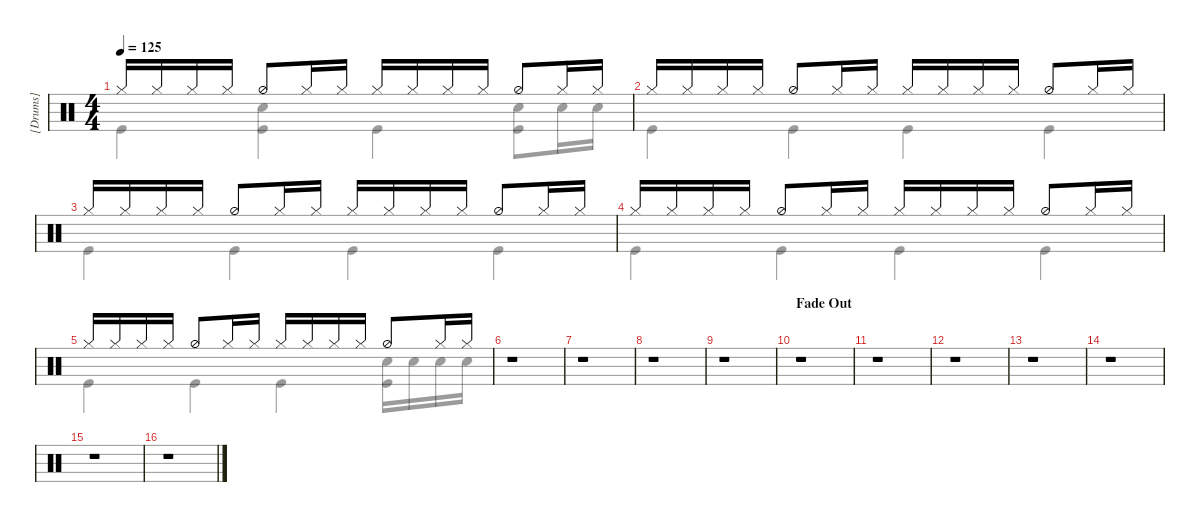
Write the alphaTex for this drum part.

\hideDynamics
\bracketExtendMode groupsimilarinstruments
\firstSystemTrackNameMode fullname
\otherSystemsTrackNameMode fullname
\otherSystemsTrackNameOrientation horizontal
\track ("[Drums]" "Drums") {instrument percussion}
\staff {score}
\articulation defaults
\voice
\ts (4 4)
\tempo 125
\clef neutral
\ks c "Hi-Hat (closed)".16{dy ff} "Hi-Hat (closed)".16 "Hi-Hat (closed)".16 "Hi-Hat (closed)".16 "Hi-Hat (half)".8 "Hi-Hat (closed)".16 "Hi-Hat (closed)".16 "Hi-Hat (closed)".16 "Hi-Hat (closed)".16 "Hi-Hat (closed)".16 "Hi-Hat (closed)".16 "Hi-Hat (half)".8 "Hi-Hat (closed)".16 "Hi-Hat (closed)".16
|
"Hi-Hat (closed)".16 "Hi-Hat (closed)".16 "Hi-Hat (closed)".16 "Hi-Hat (closed)".16 "Hi-Hat (half)".8 "Hi-Hat (closed)".16 "Hi-Hat (closed)".16 "Hi-Hat (closed)".16 "Hi-Hat (closed)".16 "Hi-Hat (closed)".16 "Hi-Hat (closed)".16 "Hi-Hat (half)".8 "Hi-Hat (closed)".16 "Hi-Hat (closed)".16 |
"Hi-Hat (closed)".16 "Hi-Hat (closed)".16 "Hi-Hat (closed)".16 "Hi-Hat (closed)".16 "Hi-Hat (half)".8 "Hi-Hat (closed)".16 "Hi-Hat (closed)".16 "Hi-Hat (closed)".16 "Hi-Hat (closed)".16 "Hi-Hat (closed)".16 "Hi-Hat (closed)".16 "Hi-Hat (half)".8 "Hi-Hat (closed)".16 "Hi-Hat (closed)".16 |
"Hi-Hat (closed)".16 "Hi-Hat (closed)".16 "Hi-Hat (closed)".16 "Hi-Hat (closed)".16 "Hi-Hat (half)".8 "Hi-Hat (closed)".16 "Hi-Hat (closed)".16 "Hi-Hat (closed)".16 "Hi-Hat (closed)".16 "Hi-Hat (closed)".16 "Hi-Hat (closed)".16 "Hi-Hat (half)".8 "Hi-Hat (closed)".16 "Hi-Hat (closed)".16 |
\scale
0.352941 "Hi-Hat (closed)".16 "Hi-Hat (closed)".16 "Hi-Hat (closed)".16 "Hi-Hat (closed)".16 "Hi-Hat (half)".8 "Hi-Hat (closed)".16 "Hi-Hat (closed)".16 "Hi-Hat (closed)".16 "Hi-Hat (closed)".16 "Hi-Hat (closed)".16 "Hi-Hat (closed)".16 "Hi-Hat (half)".8 "Hi-Hat (closed)".16 "Hi-Hat (closed)".16 |
\scale
0.272727 r.1 |
r.1 |
r.1 |
\scale
0.363636 r.1 |
\section ("" "Fade Out")
\scale
0.363636 r.1 |
r.1 |
r.1 |
r.1 |
r.1 |
r.1 |
r.1
\voice
\clef neutral
\ottava regular
\simile none
\ks c "Kick (hit)".4{dy f}
("Kick (hit)" "Snare (hit) 2").4 "Kick (hit)".4 ("Kick (hit)" "Snare (hit) 2").8 "Snare (hit) 2".16 "Snare (hit) 2".16 |
"Kick (hit)".4 "Kick (hit)".4 "Kick (hit)".4 "Kick (hit)".4 |
"Kick (hit)".4 "Kick (hit)".4 "Kick (hit)".4 "Kick (hit)".4 |
"Kick (hit)".4 "Kick (hit)".4 "Kick (hit)".4 "Kick (hit)".4 |
\scale
0.352941 "Kick (hit)".4 "Kick (hit)".4 "Kick (hit)".4 ("Kick (hit)" "Snare (hit) 2").16 "Snare (hit) 2".16 "Snare (hit) 2".16 "Snare (hit) 2".16 |
\scale
0.272727 |
|
|
\scale
0.363636 |
\scale
0.363636 |
|
|
|
|
|
